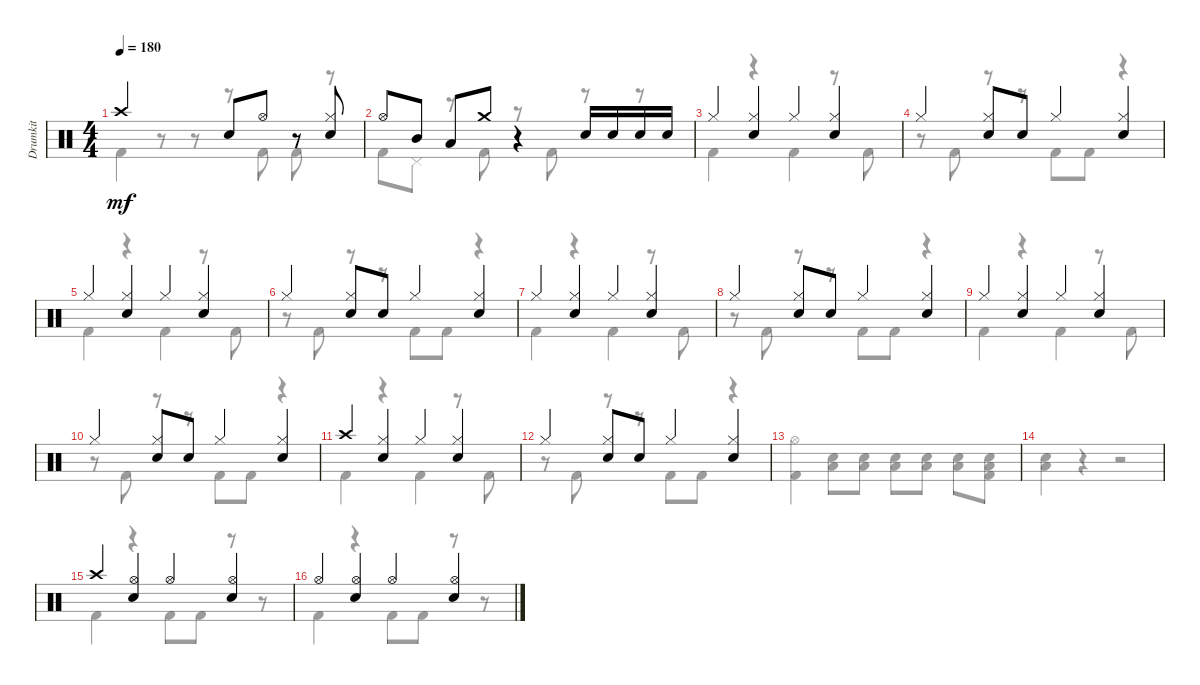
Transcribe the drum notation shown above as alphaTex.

\track ("Drumkit" "Drumkit") {instrument percussion}
\staff {score}
\articulation defaults
\voice
\ts (4 4)
\tempo 180
\clef neutral
\ks c "Crash high (hit)".2{dy mf} "Snare (hit) 2".8 "Hi-Hat (open)".8
r.8 ("Hi-Hat (closed)" "Snare (hit) 2").8 |
"Hi-Hat (open)".8 "Mid Tom (hit)".8 "Low Tom (hit)".8 "Crash medium (hit)".8 r.4 "Snare (hit) 2".16 "Snare (hit) 2".16 "Snare (hit) 2".16 "Snare (hit) 2".16 |
"Hi-Hat (closed)".4 ("Hi-Hat (closed)" "Snare (hit) 2").4 "Hi-Hat (closed)".4 ("Hi-Hat (closed)" "Snare (hit) 2").4 |
"Hi-Hat (closed)".4 ("Hi-Hat (closed)" "Snare (hit) 2").8 "Snare (hit) 2".8 "Hi-Hat (closed)".4 ("Hi-Hat (closed)" "Snare (hit) 2").4 |
"Hi-Hat (closed)".4 ("Hi-Hat (closed)" "Snare (hit) 2").4 "Hi-Hat (closed)".4 ("Hi-Hat (closed)" "Snare (hit) 2").4 |
"Hi-Hat (closed)".4 ("Hi-Hat (closed)" "Snare (hit) 2").8 "Snare (hit) 2".8 "Hi-Hat (closed)".4 ("Hi-Hat (closed)" "Snare (hit) 2").4 |
"Hi-Hat (closed)".4 ("Hi-Hat (closed)" "Snare (hit) 2").4 "Hi-Hat (closed)".4 ("Hi-Hat (closed)" "Snare (hit) 2").4 |
"Hi-Hat (closed)".4 ("Hi-Hat (closed)" "Snare (hit) 2").8 "Snare (hit) 2".8 "Hi-Hat (closed)".4 ("Hi-Hat (closed)" "Snare (hit) 2").4 |
"Hi-Hat (closed)".4 ("Hi-Hat (closed)" "Snare (hit) 2").4 "Hi-Hat (closed)".4 ("Hi-Hat (closed)" "Snare (hit) 2").4 |
"Hi-Hat (closed)".4 ("Hi-Hat (closed)" "Snare (hit) 2").8 "Snare (hit) 2".8 "Hi-Hat (closed)".4 ("Hi-Hat (closed)" "Snare (hit) 2").4 |
"Crash high (hit)".4 ("Hi-Hat (closed)" "Snare (hit) 2").4 "Hi-Hat (closed)".4 ("Hi-Hat (closed)" "Snare (hit) 2").4 |
"Hi-Hat (closed)".4 ("Hi-Hat (closed)" "Snare (hit) 2").8 "Snare (hit) 2".8 "Hi-Hat (closed)".4 ("Hi-Hat (closed)" "Snare (hit) 2").4 |
|
|
"Crash high (hit)".4 ("Hi-Hat (open)" "Snare (hit) 2").4 "Hi-Hat (open)".4 ("Hi-Hat (open)" "Snare (hit) 2").4 |
"Hi-Hat (open)".4 ("Hi-Hat (open)" "Snare (hit) 2").4 "Hi-Hat (open)".4 ("Hi-Hat (open)" "Snare (hit) 2").4
\voice
\clef neutral
\ottava regular
\simile none
\ks c "Kick (hit) 2".4{dy mf}
r.8 r.8 r.8 "Kick (hit) 2".8 "Kick (hit) 2".8 r.8 |
"Kick (hit) 2".8 "Pedal Hi-Hat (hit)".8 r.8 "Kick (hit) 2".8 r.8 "Kick (hit) 2".8 r.8 r.8 |
"Kick (hit) 2".4 r.4 "Kick (hit) 2".4 r.8 "Kick (hit) 2".8 |
r.8 "Kick (hit) 2".8 r.8 r.8 "Kick (hit) 2".8 "Kick (hit) 2".8 r.4 |
"Kick (hit) 2".4 r.4 "Kick (hit) 2".4 r.8 "Kick (hit) 2".8 |
r.8 "Kick (hit) 2".8 r.8 r.8 "Kick (hit) 2".8 "Kick (hit) 2".8 r.4 |
"Kick (hit) 2".4 r.4 "Kick (hit) 2".4 r.8 "Kick (hit) 2".8 |
r.8 "Kick (hit) 2".8 r.8 r.8 "Kick (hit) 2".8 "Kick (hit) 2".8 r.4 |
"Kick (hit) 2".4 r.4 "Kick (hit) 2".4 r.8 "Kick (hit) 2".8 |
r.8 "Kick (hit) 2".8 r.8 r.8 "Kick (hit) 2".8 "Kick (hit) 2".8 r.4 |
"Kick (hit) 2".4 r.4 "Kick (hit) 2".4 r.8 "Kick (hit) 2".8 |
r.8 "Kick (hit) 2".8 r.8 r.8 "Kick (hit) 2".8 "Kick (hit) 2".8 r.4 |
("Hi-Hat (open)" "Kick (hit) 2").4 ("Low Tom (hit)" "Snare (hit) 2").8 ("Low Tom (hit)" "Snare (hit) 2").8 ("Low Tom (hit)" "Snare (hit) 2").8 ("Low Tom (hit)" "Snare (hit) 2").8 ("Low Tom (hit)" "Snare (hit) 2").8 ("Low Tom (hit)" "Snare (hit) 2" "Kick (hit) 2").8 |
("Low Tom (hit)" "Snare (hit) 2").4 r.4 r.2 |
"Kick (hit) 2".4 r.4 "Kick (hit) 2".8 "Kick (hit) 2".8 r.8 r.8 |
"Kick (hit) 2".4 r.4 "Kick (hit) 2".8 "Kick (hit) 2".8 r.8 r.8
